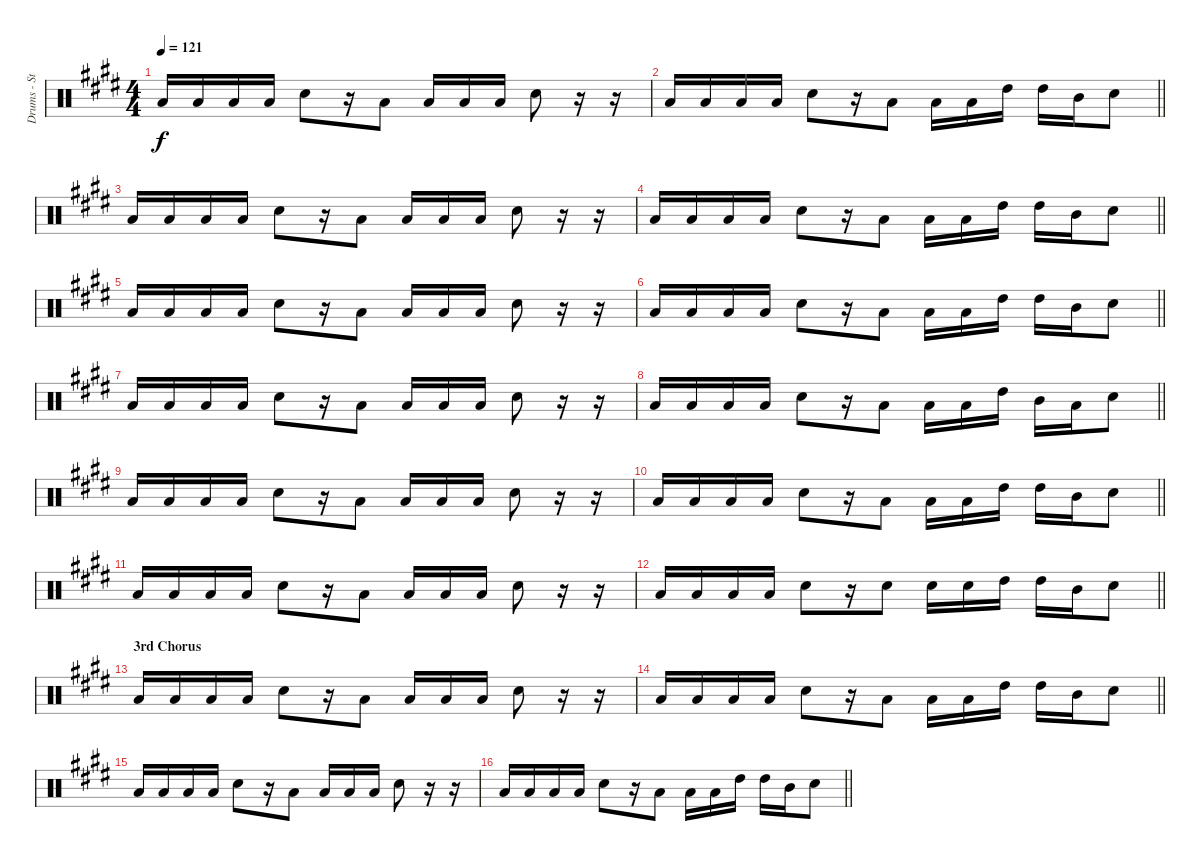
\track ("Drums - Stephen Morris" "Drums - St") {instrument percussion}
\staff {score}
\articulation defaults
\ts (4 4)
\tempo 121
\clef neutral
\ks e "Low Tom (hit)".16{dy f} "Low Tom (hit)".16 "Low Tom (hit)".16 "Low Tom (hit)".16 "Electric Snare (hit)".8
r.16 "Low Tom (hit)".8 "Low Tom (hit)".16 "Low Tom (hit)".16 "Low Tom (hit)".16 "Electric Snare (hit)".8 r.16 r.16 |
\barLineRight lightlight
\ks c#minor "Low Tom (hit)".16 "Low Tom (hit)".16 "Low Tom (hit)".16 "Low Tom (hit)".16 "Electric Snare (hit)".8
r.16 "Low Tom (hit)".8 "Low Tom (hit)".16 "Low Tom (hit)".16 "High Tom (hit)".16 "High Tom (hit)".16 "Mid Tom (hit)".16 "Electric Snare (hit)".8 |
\ks e "Low Tom (hit)".16 "Low Tom (hit)".16 "Low Tom (hit)".16 "Low Tom (hit)".16 "Electric Snare (hit)".8
r.16 "Low Tom (hit)".8 "Low Tom (hit)".16 "Low Tom (hit)".16 "Low Tom (hit)".16 "Electric Snare (hit)".8 r.16 r.16 |
\barLineRight lightlight
\ks c#minor "Low Tom (hit)".16 "Low Tom (hit)".16 "Low Tom (hit)".16 "Low Tom (hit)".16 "Electric Snare (hit)".8
r.16 "Low Tom (hit)".8 "Low Tom (hit)".16 "Low Tom (hit)".16 "High Tom (hit)".16 "High Tom (hit)".16 "Mid Tom (hit)".16 "Electric Snare (hit)".8 |
\ks e "Low Tom (hit)".16 "Low Tom (hit)".16 "Low Tom (hit)".16 "Low Tom (hit)".16 "Electric Snare (hit)".8
r.16 "Low Tom (hit)".8 "Low Tom (hit)".16 "Low Tom (hit)".16 "Low Tom (hit)".16 "Electric Snare (hit)".8 r.16 r.16 |
\barLineRight lightlight
\ks c#minor "Low Tom (hit)".16 "Low Tom (hit)".16 "Low Tom (hit)".16 "Low Tom (hit)".16 "Electric Snare (hit)".8
r.16 "Low Tom (hit)".8 "Low Tom (hit)".16 "Low Tom (hit)".16 "High Tom (hit)".16 "High Tom (hit)".16 "Mid Tom (hit)".16 "Electric Snare (hit)".8 |
\ks e "Low Tom (hit)".16 "Low Tom (hit)".16 "Low Tom (hit)".16 "Low Tom (hit)".16 "Electric Snare (hit)".8
r.16 "Low Tom (hit)".8 "Low Tom (hit)".16 "Low Tom (hit)".16 "Low Tom (hit)".16 "Electric Snare (hit)".8 r.16 r.16 |
\barLineRight lightlight
\ks c#minor "Low Tom (hit)".16 "Low Tom (hit)".16 "Low Tom (hit)".16 "Low Tom (hit)".16 "Electric Snare (hit)".8
r.16 "Low Tom (hit)".8 "Low Tom (hit)".16 "Low Tom (hit)".16 "High Tom (hit)".16 "Mid Tom (hit)".16 "Low Tom (hit)".16 "Electric Snare (hit)".8 |
\ks e "Low Tom (hit)".16 "Low Tom (hit)".16 "Low Tom (hit)".16 "Low Tom (hit)".16 "Electric Snare (hit)".8
r.16 "Low Tom (hit)".8 "Low Tom (hit)".16 "Low Tom (hit)".16 "Low Tom (hit)".16 "Electric Snare (hit)".8 r.16 r.16 |
\barLineRight lightlight
\ks c#minor "Low Tom (hit)".16 "Low Tom (hit)".16 "Low Tom (hit)".16 "Low Tom (hit)".16 "Electric Snare (hit)".8
r.16 "Low Tom (hit)".8 "Low Tom (hit)".16 "Low Tom (hit)".16 "High Tom (hit)".16 "High Tom (hit)".16 "Mid Tom (hit)".16 "Electric Snare (hit)".8 |
\ks e "Low Tom (hit)".16 "Low Tom (hit)".16 "Low Tom (hit)".16 "Low Tom (hit)".16 "Electric Snare (hit)".8
r.16 "Low Tom (hit)".8 "Low Tom (hit)".16 "Low Tom (hit)".16 "Low Tom (hit)".16 "Electric Snare (hit)".8 r.16 r.16 |
\barLineRight lightlight
\ks c#minor "Low Tom (hit)".16 "Low Tom (hit)".16 "Low Tom (hit)".16 "Low Tom (hit)".16 "Electric Snare (hit)".8
r.16 "Electric Snare (hit)".8 "Electric Snare (hit)".16 "Electric Snare (hit)".16 "High Tom (hit)".16 "High Tom (hit)".16 "Mid Tom (hit)".16 "Electric Snare (hit)".8 |
\section ("" "3rd Chorus")
\ks e "Low Tom (hit)".16 "Low Tom (hit)".16 "Low Tom (hit)".16 "Low Tom (hit)".16 "Electric Snare (hit)".8
r.16 "Low Tom (hit)".8 "Low Tom (hit)".16 "Low Tom (hit)".16 "Low Tom (hit)".16 "Electric Snare (hit)".8 r.16 r.16 |
\barLineRight lightlight
\ks c#minor "Low Tom (hit)".16 "Low Tom (hit)".16 "Low Tom (hit)".16 "Low Tom (hit)".16 "Electric Snare (hit)".8
r.16 "Low Tom (hit)".8 "Low Tom (hit)".16 "Low Tom (hit)".16 "High Tom (hit)".16 "High Tom (hit)".16 "Mid Tom (hit)".16 "Electric Snare (hit)".8 |
\ks e "Low Tom (hit)".16 "Low Tom (hit)".16 "Low Tom (hit)".16 "Low Tom (hit)".16 "Electric Snare (hit)".8
r.16 "Low Tom (hit)".8 "Low Tom (hit)".16 "Low Tom (hit)".16 "Low Tom (hit)".16 "Electric Snare (hit)".8 r.16 r.16 |
\barLineRight lightlight
\ks c#minor "Low Tom (hit)".16 "Low Tom (hit)".16 "Low Tom (hit)".16 "Low Tom (hit)".16 "Electric Snare (hit)".8
r.16 "Low Tom (hit)".8 "Low Tom (hit)".16 "Low Tom (hit)".16 "High Tom (hit)".16 "High Tom (hit)".16 "Mid Tom (hit)".16 "Electric Snare (hit)".8
